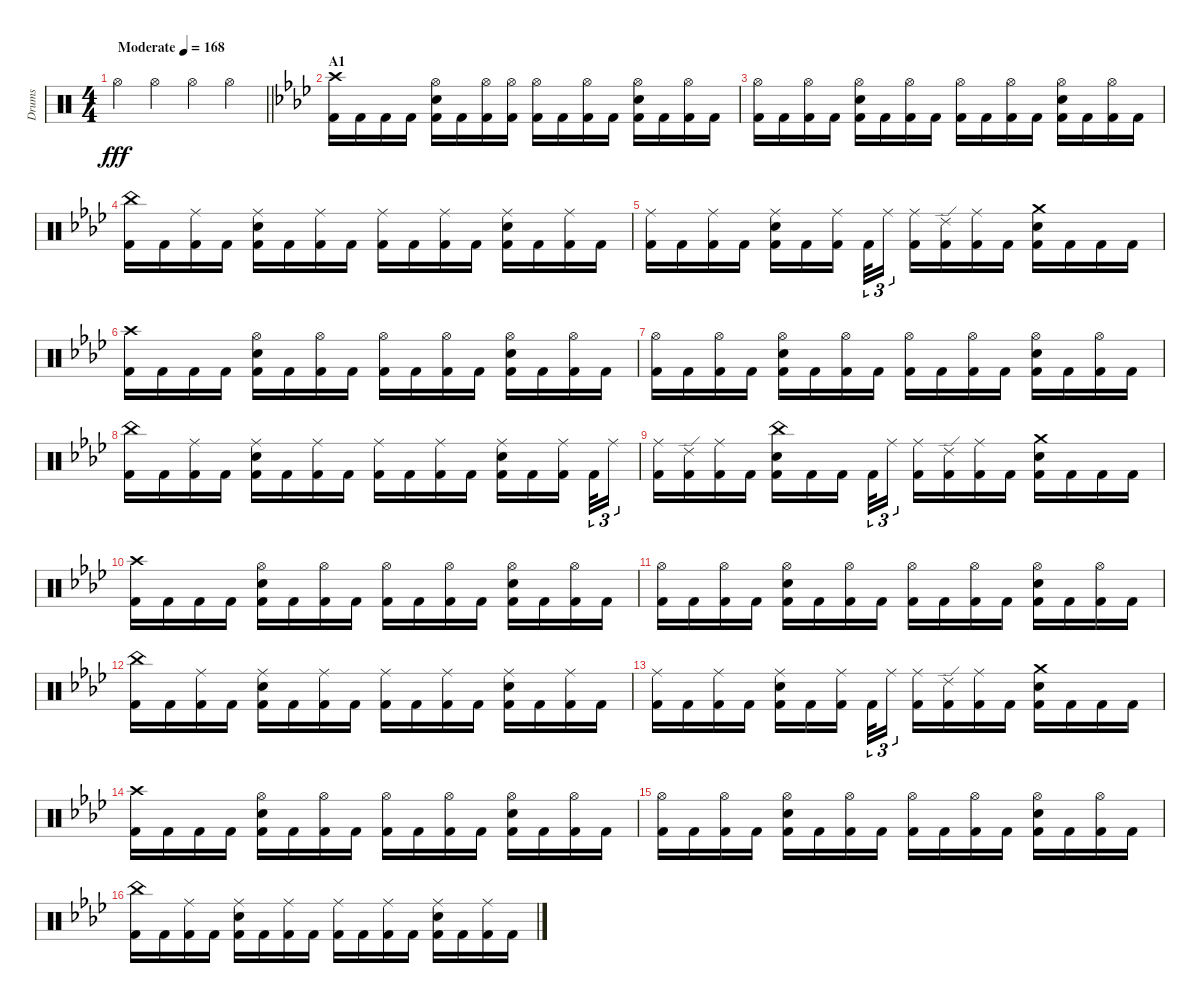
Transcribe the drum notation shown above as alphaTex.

\track ("Drums" "Drums") {instrument percussion}
\staff {score}
\articulation defaults
\ts (4 4)
\tempo (168 "Moderate")
\clef neutral
\barLineRight lightlight
\ks c "Hi-Hat (open)".4{dy fff} "Hi-Hat (open)".4 "Hi-Hat (open)".4 "Hi-Hat (open)".4
|
\section ("" "A1")
\ks fminor
("Crash high (hit)" "Kick (hit) 2").16 "Kick (hit) 2".16 "Kick (hit) 2".16 "Kick (hit) 2".16 ("Hi-Hat (open)" "Snare (hit) 2" "Kick (hit) 2").16 "Kick (hit) 2".16 ("Hi-Hat (open)" "Kick (hit) 2").16 ("Hi-Hat (open)" "Kick (hit) 2").16 ("Hi-Hat (open)" "Kick (hit) 2").16 "Kick (hit) 2".16 ("Hi-Hat (open)" "Kick (hit) 2").16 "Kick (hit) 2".16 ("Snare (hit) 2" "Hi-Hat (open)" "Kick (hit) 2").16 "Kick (hit) 2".16 ("Hi-Hat (open)" "Kick (hit) 2").16 "Kick (hit) 2".16 |
("Hi-Hat (open)" "Kick (hit) 2").16 "Kick (hit) 2".16 ("Hi-Hat (open)" "Kick (hit) 2").16 "Kick (hit) 2".16 ("Snare (hit) 2" "Hi-Hat (open)" "Kick (hit) 2").16 "Kick (hit) 2".16 ("Hi-Hat (open)" "Kick (hit) 2").16 "Kick (hit) 2".16 ("Hi-Hat (open)" "Kick (hit) 2").16 "Kick (hit) 2".16 ("Hi-Hat (open)" "Kick (hit) 2").16 "Kick (hit) 2".16 ("Snare (hit) 2" "Hi-Hat (open)" "Kick (hit) 2").16 "Kick (hit) 2".16 ("Hi-Hat (open)" "Kick (hit) 2").16 "Kick (hit) 2".16 |
("China (hit)" "Kick (hit) 2").16 "Kick (hit) 2".16 ("Ride (middle)" "Kick (hit) 2").16 "Kick (hit) 2".16 ("Snare (hit) 2" "Ride (middle)" "Kick (hit) 2").16 "Kick (hit) 2".16 ("Ride (middle)" "Kick (hit) 2").16 "Kick (hit) 2".16 ("Ride (middle)" "Kick (hit) 2").16 "Kick (hit) 2".16 ("Ride (middle)" "Kick (hit) 2").16 "Kick (hit) 2".16 ("Snare (hit) 2" "Ride (middle)" "Kick (hit) 2").16 "Kick (hit) 2".16 ("Ride (middle)" "Kick (hit) 2").16 "Kick (hit) 2".16 |
("Ride (middle)" "Kick (hit) 2").16 "Kick (hit) 2".16 ("Ride (middle)" "Kick (hit) 2").16 "Kick (hit) 2".16 ("Snare (hit) 2" "Ride (middle)" "Kick (hit) 2").16 "Kick (hit) 2".16 ("Ride (middle)" "Kick (hit) 2").16{beam splitsecondary} "Kick (hit) 2".32{tu (3 2)} "Ride (middle)".16{tu (3 2)} ("Ride (middle)" "Kick (hit) 2").16 ("Ride (edge) 2" "Kick (hit) 2").16 ("Ride (middle)" "Kick (hit) 2").16 "Kick (hit) 2".16 ("Crash medium (hit)" "Snare (hit) 2" "Kick (hit) 2").16 "Kick (hit) 2".16 "Kick (hit) 2".16 "Kick (hit) 2".16 |
("Crash high (hit)" "Kick (hit) 2").16 "Kick (hit) 2".16 "Kick (hit) 2".16 "Kick (hit) 2".16 ("Hi-Hat (open)" "Snare (hit) 2" "Kick (hit) 2").16 "Kick (hit) 2".16 ("Hi-Hat (open)" "Kick (hit) 2").16 "Kick (hit) 2".16 ("Hi-Hat (open)" "Kick (hit) 2").16 "Kick (hit) 2".16 ("Hi-Hat (open)" "Kick (hit) 2").16 "Kick (hit) 2".16 ("Snare (hit) 2" "Hi-Hat (open)" "Kick (hit) 2").16 "Kick (hit) 2".16 ("Hi-Hat (open)" "Kick (hit) 2").16 "Kick (hit) 2".16 |
("Hi-Hat (open)" "Kick (hit) 2").16 "Kick (hit) 2".16 ("Hi-Hat (open)" "Kick (hit) 2").16 "Kick (hit) 2".16 ("Hi-Hat (open)" "Snare (hit) 2" "Kick (hit) 2").16 "Kick (hit) 2".16 ("Hi-Hat (open)" "Kick (hit) 2").16 "Kick (hit) 2".16 ("Hi-Hat (open)" "Kick (hit) 2").16 "Kick (hit) 2".16 ("Hi-Hat (open)" "Kick (hit) 2").16 "Kick (hit) 2".16 ("Snare (hit) 2" "Hi-Hat (open)" "Kick (hit) 2").16 "Kick (hit) 2".16 ("Hi-Hat (open)" "Kick (hit) 2").16 "Kick (hit) 2".16 |
("China (hit)" "Kick (hit) 2").16 "Kick (hit) 2".16 ("Ride (middle)" "Kick (hit) 2").16 "Kick (hit) 2".16 ("Snare (hit) 2" "Ride (middle)" "Kick (hit) 2").16 "Kick (hit) 2".16 ("Ride (middle)" "Kick (hit) 2").16 "Kick (hit) 2".16 ("Ride (middle)" "Kick (hit) 2").16 "Kick (hit) 2".16 ("Ride (middle)" "Kick (hit) 2").16 "Kick (hit) 2".16 ("Snare (hit) 2" "Ride (middle)" "Kick (hit) 2").16 "Kick (hit) 2".16 ("Ride (middle)" "Kick (hit) 2").16{beam splitsecondary} "Kick (hit) 2".32{tu (3 2)} "Ride (middle)".16{tu (3 2)} |
("Ride (middle)" "Kick (hit) 2").16 ("Ride (edge) 2" "Kick (hit) 2").16 ("Ride (middle)" "Kick (hit) 2").16 "Kick (hit) 2".16 ("China (hit)" "Snare (hit) 2" "Kick (hit) 2").16 "Kick (hit) 2".16 "Kick (hit) 2".16{beam splitsecondary} "Kick (hit) 2".32{tu (3 2)} "Ride (middle)".16{tu (3 2)} ("Ride (middle)" "Kick (hit) 2").16 ("Ride (edge) 2" "Kick (hit) 2").16 ("Ride (middle)" "Kick (hit) 2").16 "Kick (hit) 2".16 ("Crash medium (hit)" "Snare (hit) 2" "Kick (hit) 2").16 "Kick (hit) 2".16 "Kick (hit) 2".16 "Kick (hit) 2".16 |
("Crash high (hit)" "Kick (hit) 2").16 "Kick (hit) 2".16 "Kick (hit) 2".16 "Kick (hit) 2".16 ("Hi-Hat (open)" "Snare (hit) 2" "Kick (hit) 2").16 "Kick (hit) 2".16 ("Hi-Hat (open)" "Kick (hit) 2").16 "Kick (hit) 2".16 ("Hi-Hat (open)" "Kick (hit) 2").16 "Kick (hit) 2".16 ("Hi-Hat (open)" "Kick (hit) 2").16 "Kick (hit) 2".16 ("Snare (hit) 2" "Hi-Hat (open)" "Kick (hit) 2").16 "Kick (hit) 2".16 ("Hi-Hat (open)" "Kick (hit) 2").16 "Kick (hit) 2".16 |
("Hi-Hat (open)" "Kick (hit) 2").16 "Kick (hit) 2".16 ("Hi-Hat (open)" "Kick (hit) 2").16 "Kick (hit) 2".16 ("Snare (hit) 2" "Hi-Hat (open)" "Kick (hit) 2").16 "Kick (hit) 2".16 ("Hi-Hat (open)" "Kick (hit) 2").16 "Kick (hit) 2".16 ("Hi-Hat (open)" "Kick (hit) 2").16 "Kick (hit) 2".16 ("Hi-Hat (open)" "Kick (hit) 2").16 "Kick (hit) 2".16 ("Snare (hit) 2" "Hi-Hat (open)" "Kick (hit) 2").16 "Kick (hit) 2".16 ("Hi-Hat (open)" "Kick (hit) 2").16 "Kick (hit) 2".16 |
("China (hit)" "Kick (hit) 2").16 "Kick (hit) 2".16 ("Ride (middle)" "Kick (hit) 2").16 "Kick (hit) 2".16 ("Snare (hit) 2" "Ride (middle)" "Kick (hit) 2").16 "Kick (hit) 2".16 ("Ride (middle)" "Kick (hit) 2").16 "Kick (hit) 2".16 ("Ride (middle)" "Kick (hit) 2").16 "Kick (hit) 2".16 ("Ride (middle)" "Kick (hit) 2").16 "Kick (hit) 2".16 ("Snare (hit) 2" "Ride (middle)" "Kick (hit) 2").16 "Kick (hit) 2".16 ("Ride (middle)" "Kick (hit) 2").16 "Kick (hit) 2".16 |
("Ride (middle)" "Kick (hit) 2").16 "Kick (hit) 2".16 ("Ride (middle)" "Kick (hit) 2").16 "Kick (hit) 2".16 ("Snare (hit) 2" "Ride (middle)" "Kick (hit) 2").16 "Kick (hit) 2".16 ("Ride (middle)" "Kick (hit) 2").16{beam splitsecondary} "Kick (hit) 2".32{tu (3 2)} "Ride (middle)".16{tu (3 2)} ("Ride (middle)" "Kick (hit) 2").16 ("Ride (edge) 2" "Kick (hit) 2").16 ("Ride (middle)" "Kick (hit) 2").16 "Kick (hit) 2".16 ("Crash medium (hit)" "Snare (hit) 2" "Kick (hit) 2").16 "Kick (hit) 2".16 "Kick (hit) 2".16 "Kick (hit) 2".16 |
("Crash high (hit)" "Kick (hit) 2").16 "Kick (hit) 2".16 "Kick (hit) 2".16 "Kick (hit) 2".16 ("Hi-Hat (open)" "Snare (hit) 2" "Kick (hit) 2").16 "Kick (hit) 2".16 ("Hi-Hat (open)" "Kick (hit) 2").16 "Kick (hit) 2".16 ("Hi-Hat (open)" "Kick (hit) 2").16 "Kick (hit) 2".16 ("Hi-Hat (open)" "Kick (hit) 2").16 "Kick (hit) 2".16 ("Hi-Hat (open)" "Snare (hit) 2" "Kick (hit) 2").16 "Kick (hit) 2".16 ("Hi-Hat (open)" "Kick (hit) 2").16 "Kick (hit) 2".16 |
("Hi-Hat (open)" "Kick (hit) 2").16 "Kick (hit) 2".16 ("Hi-Hat (open)" "Kick (hit) 2").16 "Kick (hit) 2".16 ("Snare (hit) 2" "Hi-Hat (open)" "Kick (hit) 2").16 "Kick (hit) 2".16 ("Hi-Hat (open)" "Kick (hit) 2").16 "Kick (hit) 2".16 ("Hi-Hat (open)" "Kick (hit) 2").16 "Kick (hit) 2".16 ("Hi-Hat (open)" "Kick (hit) 2").16 "Kick (hit) 2".16 ("Hi-Hat (open)" "Snare (hit) 2" "Kick (hit) 2").16 "Kick (hit) 2".16 ("Hi-Hat (open)" "Kick (hit) 2").16 "Kick (hit) 2".16 |
("China (hit)" "Kick (hit) 2").16 "Kick (hit) 2".16 ("Ride (middle)" "Kick (hit) 2").16 "Kick (hit) 2".16 ("Snare (hit) 2" "Ride (middle)" "Kick (hit) 2").16 "Kick (hit) 2".16 ("Ride (middle)" "Kick (hit) 2").16 "Kick (hit) 2".16 ("Ride (middle)" "Kick (hit) 2").16 "Kick (hit) 2".16 ("Ride (middle)" "Kick (hit) 2").16 "Kick (hit) 2".16 ("Snare (hit) 2" "Ride (middle)" "Kick (hit) 2").16 "Kick (hit) 2".16 ("Ride (middle)" "Kick (hit) 2").16 "Kick (hit) 2".16
